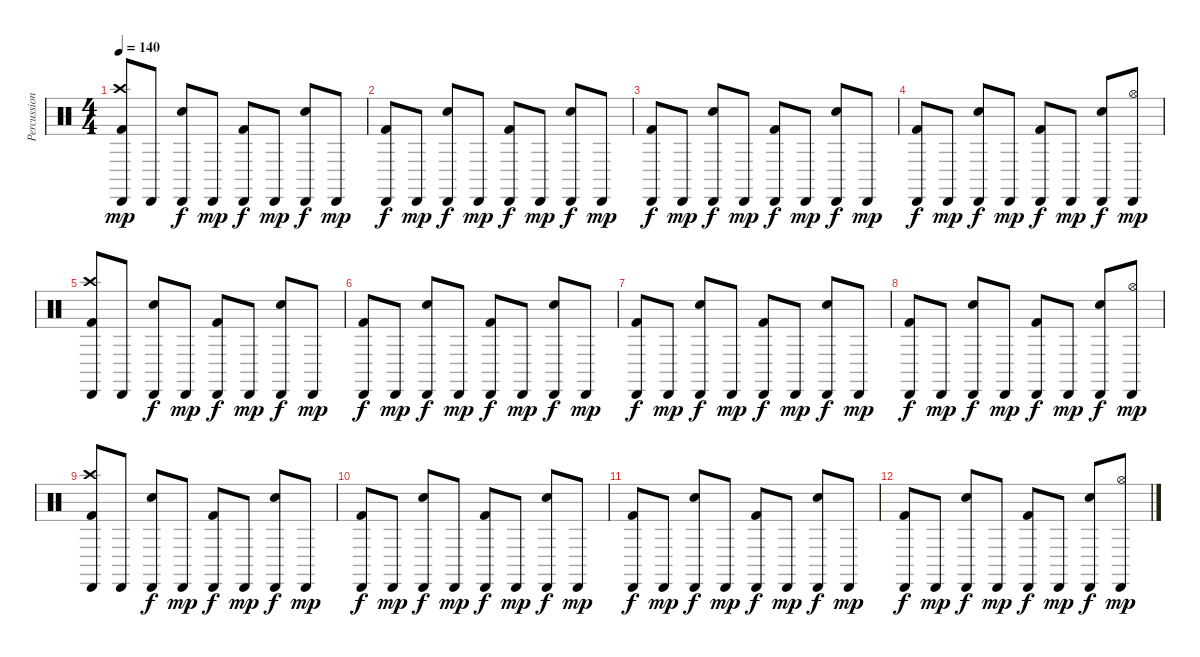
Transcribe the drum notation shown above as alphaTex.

\track ("Percussion" "Percussion") {instrument percussion}
\staff {score}
\articulation defaults
\ts (4 4)
\tempo 140
\clef neutral
\ks c
("Cabasa (hit)" "Crash high (hit)" "Kick (hit) 2").8{dy mp} "Cabasa (hit)".8 ("Cabasa (hit)" "Electric Snare (hit)").8{dy f} "Cabasa (hit)".8{dy mp} ("Cabasa (hit)" "Kick (hit) 2").8{dy f} "Cabasa (hit)".8{dy mp} ("Cabasa (hit)" "Electric Snare (hit)").8{dy f} "Cabasa (hit)".8{dy mp} |
("Cabasa (hit)" "Kick (hit) 2").8{dy f} "Cabasa (hit)".8{dy mp} ("Cabasa (hit)" "Electric Snare (hit)").8{dy f} "Cabasa (hit)".8{dy mp} ("Cabasa (hit)" "Kick (hit) 2").8{dy f} "Cabasa (hit)".8{dy mp} ("Cabasa (hit)" "Electric Snare (hit)").8{dy f} "Cabasa (hit)".8{dy mp} |
("Cabasa (hit)" "Kick (hit) 2").8{dy f volume 9} "Cabasa (hit)".8{dy mp} ("Cabasa (hit)" "Electric Snare (hit)").8{dy f} "Cabasa (hit)".8{dy mp} ("Cabasa (hit)" "Kick (hit) 2").8{dy f} "Cabasa (hit)".8{dy mp} ("Cabasa (hit)" "Electric Snare (hit)").8{dy f} "Cabasa (hit)".8{dy mp} |
("Cabasa (hit)" "Kick (hit) 2").8{dy f} "Cabasa (hit)".8{dy mp} ("Cabasa (hit)" "Electric Snare (hit)").8{dy f} "Cabasa (hit)".8{dy mp} ("Cabasa (hit)" "Kick (hit) 2").8{dy f} "Cabasa (hit)".8{dy mp} ("Cabasa (hit)" "Electric Snare (hit)").8{dy f} ("Cabasa (hit)" "Hi-Hat (open)").8{dy mp} |
("Cabasa (hit)" "Crash high (hit)" "Kick (hit) 2").8 "Cabasa (hit)".8 ("Cabasa (hit)" "Electric Snare (hit)").8{dy f} "Cabasa (hit)".8{dy mp} ("Cabasa (hit)" "Kick (hit) 2").8{dy f} "Cabasa (hit)".8{dy mp} ("Cabasa (hit)" "Electric Snare (hit)").8{dy f} "Cabasa (hit)".8{dy mp} |
("Cabasa (hit)" "Kick (hit) 2").8{dy f} "Cabasa (hit)".8{dy mp} ("Cabasa (hit)" "Electric Snare (hit)").8{dy f} "Cabasa (hit)".8{dy mp} ("Cabasa (hit)" "Kick (hit) 2").8{dy f} "Cabasa (hit)".8{dy mp} ("Cabasa (hit)" "Electric Snare (hit)").8{dy f} "Cabasa (hit)".8{dy mp} |
("Cabasa (hit)" "Kick (hit) 2").8{dy f volume 5} "Cabasa (hit)".8{dy mp} ("Cabasa (hit)" "Electric Snare (hit)").8{dy f} "Cabasa (hit)".8{dy mp} ("Cabasa (hit)" "Kick (hit) 2").8{dy f} "Cabasa (hit)".8{dy mp} ("Cabasa (hit)" "Electric Snare (hit)").8{dy f} "Cabasa (hit)".8{dy mp} |
("Cabasa (hit)" "Kick (hit) 2").8{dy f} "Cabasa (hit)".8{dy mp} ("Cabasa (hit)" "Electric Snare (hit)").8{dy f} "Cabasa (hit)".8{dy mp} ("Cabasa (hit)" "Kick (hit) 2").8{dy f} "Cabasa (hit)".8{dy mp} ("Cabasa (hit)" "Electric Snare (hit)").8{dy f} ("Cabasa (hit)" "Hi-Hat (open)").8{dy mp} |
("Cabasa (hit)" "Crash high (hit)" "Kick (hit) 2").8 "Cabasa (hit)".8 ("Cabasa (hit)" "Electric Snare (hit)").8{dy f} "Cabasa (hit)".8{dy mp} ("Cabasa (hit)" "Kick (hit) 2").8{dy f} "Cabasa (hit)".8{dy mp} ("Cabasa (hit)" "Electric Snare (hit)").8{dy f} "Cabasa (hit)".8{dy mp} |
("Cabasa (hit)" "Kick (hit) 2").8{dy f} "Cabasa (hit)".8{dy mp} ("Cabasa (hit)" "Electric Snare (hit)").8{dy f} "Cabasa (hit)".8{dy mp} ("Cabasa (hit)" "Kick (hit) 2").8{dy f} "Cabasa (hit)".8{dy mp} ("Cabasa (hit)" "Electric Snare (hit)").8{dy f} "Cabasa (hit)".8{dy mp} |
("Cabasa (hit)" "Kick (hit) 2").8{dy f volume 0} "Cabasa (hit)".8{dy mp} ("Cabasa (hit)" "Electric Snare (hit)").8{dy f} "Cabasa (hit)".8{dy mp} ("Cabasa (hit)" "Kick (hit) 2").8{dy f} "Cabasa (hit)".8{dy mp} ("Cabasa (hit)" "Electric Snare (hit)").8{dy f} "Cabasa (hit)".8{dy mp} |
("Cabasa (hit)" "Kick (hit) 2").8{dy f} "Cabasa (hit)".8{dy mp} ("Cabasa (hit)" "Electric Snare (hit)").8{dy f} "Cabasa (hit)".8{dy mp} ("Cabasa (hit)" "Kick (hit) 2").8{dy f} "Cabasa (hit)".8{dy mp} ("Cabasa (hit)" "Electric Snare (hit)").8{dy f} ("Cabasa (hit)" "Hi-Hat (open)").8{dy mp}
